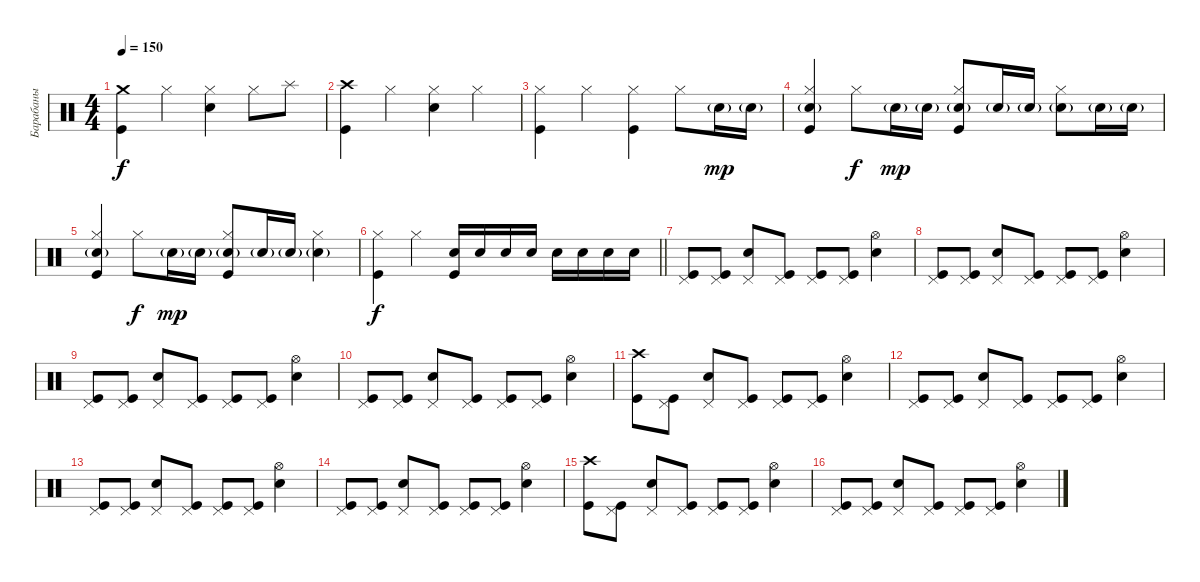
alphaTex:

\track ("Барабаны" "Барабаны") {instrument percussion}
\staff {score}
\articulation defaults
\ts (4 4)
\tempo 150
\clef neutral
\ks c
("Crash medium (hit)" "Kick (hit)").4{dy f} "Hi-Hat (closed)".4 ("Hi-Hat (closed)" "Electric Snare (hit)").4 "Hi-Hat (closed)".8 "Splash (hit)".8 |
("Crash high (hit)" "Kick (hit)").4 "Hi-Hat (closed)".4 ("Hi-Hat (closed)" "Electric Snare (hit)").4 "Hi-Hat (closed)".4 |
("Hi-Hat (closed)" "Kick (hit)").4 "Hi-Hat (closed)".4 ("Hi-Hat (closed)" "Kick (hit)").4 "Hi-Hat (closed)".8 "Snare (hit) 2"{g}.16{dy mp} "Snare (hit) 2"{g}.16 |
("Hi-Hat (closed)" "Snare (hit) 2"{g} "Kick (hit)").4 "Hi-Hat (closed)".8{dy f} "Snare (hit) 2"{g}.16{dy mp} "Snare (hit) 2"{g}.16 ("Hi-Hat (closed)" "Snare (hit) 2"{g} "Kick (hit)").8 "Snare (hit) 2"{g}.16 "Snare (hit) 2"{g}.16 ("Hi-Hat (closed)" "Snare (hit) 2"{g}).8 "Snare (hit) 2"{g}.16 "Snare (hit) 2"{g}.16 |
("Hi-Hat (closed)" "Snare (hit) 2"{g} "Kick (hit)").4 "Hi-Hat (closed)".8{dy f} "Snare (hit) 2"{g}.16{dy mp} "Snare (hit) 2"{g}.16 ("Hi-Hat (closed)" "Snare (hit) 2"{g} "Kick (hit)").8 "Snare (hit) 2"{g}.16 "Snare (hit) 2"{g}.16 ("Hi-Hat (closed)" "Snare (hit) 2"{g}).4 |
\barLineRight lightlight
("Hi-Hat (closed)" "Kick (hit)").4{dy f} "Hi-Hat (closed)".4 ("Electric Snare (hit)" "Kick (hit)").16 "Electric Snare (hit)".16 "Electric Snare (hit)".16 "Electric Snare (hit)".16 "Electric Snare (hit)".16 "Snare (hit) 2".16 "Snare (hit) 2".16 "Snare (hit) 2".16 |
("Pedal Hi-Hat (hit)" "Kick (hit)").8 ("Pedal Hi-Hat (hit)" "Kick (hit)").8 ("Pedal Hi-Hat (hit)" "Electric Snare (hit)").8 ("Pedal Hi-Hat (hit)" "Kick (hit)").8 ("Pedal Hi-Hat (hit)" "Kick (hit)").8 ("Pedal Hi-Hat (hit)" "Kick (hit)").8 ("Hi-Hat (open)" "Electric Snare (hit)").4 |
("Pedal Hi-Hat (hit)" "Kick (hit)").8 ("Pedal Hi-Hat (hit)" "Kick (hit)").8 ("Pedal Hi-Hat (hit)" "Electric Snare (hit)").8 ("Pedal Hi-Hat (hit)" "Kick (hit)").8 ("Pedal Hi-Hat (hit)" "Kick (hit)").8 ("Pedal Hi-Hat (hit)" "Kick (hit)").8 ("Hi-Hat (open)" "Electric Snare (hit)").4 |
("Pedal Hi-Hat (hit)" "Kick (hit)").8 ("Pedal Hi-Hat (hit)" "Kick (hit)").8 ("Pedal Hi-Hat (hit)" "Electric Snare (hit)").8 ("Pedal Hi-Hat (hit)" "Kick (hit)").8 ("Pedal Hi-Hat (hit)" "Kick (hit)").8 ("Pedal Hi-Hat (hit)" "Kick (hit)").8 ("Hi-Hat (open)" "Electric Snare (hit)").4 |
("Pedal Hi-Hat (hit)" "Kick (hit)").8 ("Pedal Hi-Hat (hit)" "Kick (hit)").8 ("Pedal Hi-Hat (hit)" "Electric Snare (hit)").8 ("Pedal Hi-Hat (hit)" "Kick (hit)").8 ("Pedal Hi-Hat (hit)" "Kick (hit)").8 ("Pedal Hi-Hat (hit)" "Kick (hit)").8 ("Hi-Hat (open)" "Electric Snare (hit)").4 |
("Crash high (hit)" "Kick (hit)").8 ("Pedal Hi-Hat (hit)" "Kick (hit)").8 ("Pedal Hi-Hat (hit)" "Electric Snare (hit)").8 ("Pedal Hi-Hat (hit)" "Kick (hit)").8 ("Pedal Hi-Hat (hit)" "Kick (hit)").8 ("Pedal Hi-Hat (hit)" "Kick (hit)").8 ("Hi-Hat (open)" "Electric Snare (hit)").4 |
("Pedal Hi-Hat (hit)" "Kick (hit)").8 ("Pedal Hi-Hat (hit)" "Kick (hit)").8 ("Pedal Hi-Hat (hit)" "Electric Snare (hit)").8 ("Pedal Hi-Hat (hit)" "Kick (hit)").8 ("Pedal Hi-Hat (hit)" "Kick (hit)").8 ("Pedal Hi-Hat (hit)" "Kick (hit)").8 ("Hi-Hat (open)" "Electric Snare (hit)").4 |
("Pedal Hi-Hat (hit)" "Kick (hit)").8 ("Pedal Hi-Hat (hit)" "Kick (hit)").8 ("Pedal Hi-Hat (hit)" "Electric Snare (hit)").8 ("Pedal Hi-Hat (hit)" "Kick (hit)").8 ("Pedal Hi-Hat (hit)" "Kick (hit)").8 ("Pedal Hi-Hat (hit)" "Kick (hit)").8 ("Hi-Hat (open)" "Electric Snare (hit)").4 |
("Pedal Hi-Hat (hit)" "Kick (hit)").8 ("Pedal Hi-Hat (hit)" "Kick (hit)").8 ("Pedal Hi-Hat (hit)" "Electric Snare (hit)").8 ("Pedal Hi-Hat (hit)" "Kick (hit)").8 ("Pedal Hi-Hat (hit)" "Kick (hit)").8 ("Pedal Hi-Hat (hit)" "Kick (hit)").8 ("Hi-Hat (open)" "Electric Snare (hit)").4 |
("Crash high (hit)" "Kick (hit)").8 ("Pedal Hi-Hat (hit)" "Kick (hit)").8 ("Pedal Hi-Hat (hit)" "Electric Snare (hit)").8 ("Pedal Hi-Hat (hit)" "Kick (hit)").8 ("Pedal Hi-Hat (hit)" "Kick (hit)").8 ("Pedal Hi-Hat (hit)" "Kick (hit)").8 ("Hi-Hat (open)" "Electric Snare (hit)").4 |
("Pedal Hi-Hat (hit)" "Kick (hit)").8 ("Pedal Hi-Hat (hit)" "Kick (hit)").8 ("Pedal Hi-Hat (hit)" "Electric Snare (hit)").8 ("Pedal Hi-Hat (hit)" "Kick (hit)").8 ("Pedal Hi-Hat (hit)" "Kick (hit)").8 ("Pedal Hi-Hat (hit)" "Kick (hit)").8 ("Hi-Hat (open)" "Electric Snare (hit)").4
